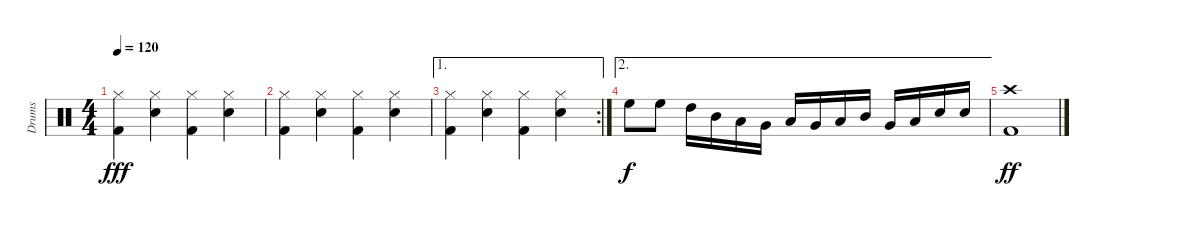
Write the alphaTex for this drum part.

\track ("Drums" "Drums") {instrument percussion}
\staff {score}
\articulation defaults
\ts (4 4)
\tempo 120
\clef neutral
\ks c
("Hi-Hat (closed)" "Kick (hit) 2").4{dy fff} ("Hi-Hat (closed)" "Electric Snare (hit)").4 ("Hi-Hat (closed)" "Kick (hit) 2").4 ("Hi-Hat (closed)" "Electric Snare (hit)").4 |
("Hi-Hat (closed)" "Kick (hit) 2").4 ("Hi-Hat (closed)" "Electric Snare (hit)").4 ("Hi-Hat (closed)" "Kick (hit) 2").4 ("Hi-Hat (closed)" "Electric Snare (hit)").4 |
\ae 1
\rc 2
("Hi-Hat (closed)" "Kick (hit) 2").4 ("Hi-Hat (closed)" "Electric Snare (hit)").4 ("Hi-Hat (closed)" "Kick (hit) 2").4 ("Hi-Hat (closed)" "Electric Snare (hit)").4 |
\ae 2 "High Floor Tom (hit)".8{dy f} "High Floor Tom (hit)".8 "High Tom (hit)".16 "Mid Tom (hit)".16 "Low Tom (hit)".16 "Very Low Tom (hit)".16 "Low Floor Tom (hit)".16 "Very Low Tom (hit)".16 "Low Tom (hit)".16 "Mid Tom (hit)".16 "Very Low Tom (hit)".16 "Low Floor Tom (hit)".16 "Electric Snare (hit)".16 "Electric Snare (hit)".16
|
("Kick (hit) 2" "Crash high (hit)").1{dy ff}
